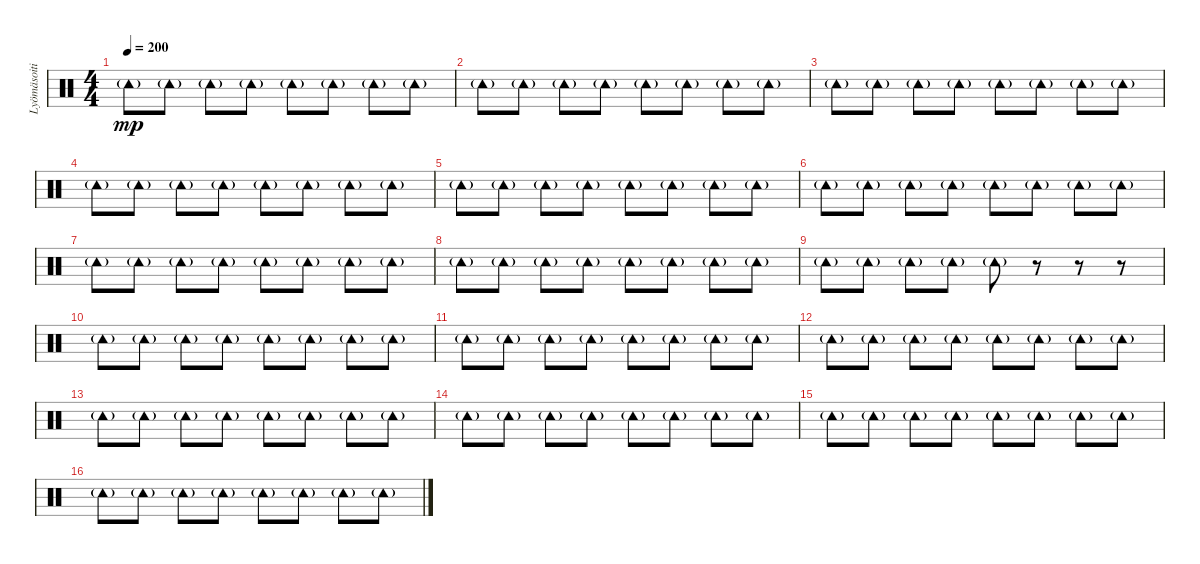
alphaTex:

\track ("Lyömäsoitin" "Lyömäsoiti") {instrument percussion}
\staff {score}
\articulation defaults
\ts (4 4)
\tempo 200
\clef neutral
\ks c "Tambourine (hit)"{g}.8{dy mp} "Tambourine (hit)"{g}.8 "Tambourine (hit)"{g}.8 "Tambourine (hit)"{g}.8 "Tambourine (hit)"{g}.8 "Tambourine (hit)"{g}.8 "Tambourine (hit)"{g}.8 "Tambourine (hit)"{g}.8
|
"Tambourine (hit)"{g}.8 "Tambourine (hit)"{g}.8 "Tambourine (hit)"{g}.8 "Tambourine (hit)"{g}.8 "Tambourine (hit)"{g}.8 "Tambourine (hit)"{g}.8 "Tambourine (hit)"{g}.8 "Tambourine (hit)"{g}.8 |
"Tambourine (hit)"{g}.8 "Tambourine (hit)"{g}.8 "Tambourine (hit)"{g}.8 "Tambourine (hit)"{g}.8 "Tambourine (hit)"{g}.8 "Tambourine (hit)"{g}.8 "Tambourine (hit)"{g}.8 "Tambourine (hit)"{g}.8 |
"Tambourine (hit)"{g}.8 "Tambourine (hit)"{g}.8 "Tambourine (hit)"{g}.8 "Tambourine (hit)"{g}.8 "Tambourine (hit)"{g}.8 "Tambourine (hit)"{g}.8 "Tambourine (hit)"{g}.8 "Tambourine (hit)"{g}.8 |
"Tambourine (hit)"{g}.8 "Tambourine (hit)"{g}.8 "Tambourine (hit)"{g}.8 "Tambourine (hit)"{g}.8 "Tambourine (hit)"{g}.8 "Tambourine (hit)"{g}.8 "Tambourine (hit)"{g}.8 "Tambourine (hit)"{g}.8 |
"Tambourine (hit)"{g}.8 "Tambourine (hit)"{g}.8 "Tambourine (hit)"{g}.8 "Tambourine (hit)"{g}.8 "Tambourine (hit)"{g}.8 "Tambourine (hit)"{g}.8 "Tambourine (hit)"{g}.8 "Tambourine (hit)"{g}.8 |
"Tambourine (hit)"{g}.8 "Tambourine (hit)"{g}.8 "Tambourine (hit)"{g}.8 "Tambourine (hit)"{g}.8 "Tambourine (hit)"{g}.8 "Tambourine (hit)"{g}.8 "Tambourine (hit)"{g}.8 "Tambourine (hit)"{g}.8 |
"Tambourine (hit)"{g}.8 "Tambourine (hit)"{g}.8 "Tambourine (hit)"{g}.8 "Tambourine (hit)"{g}.8 "Tambourine (hit)"{g}.8 "Tambourine (hit)"{g}.8 "Tambourine (hit)"{g}.8 "Tambourine (hit)"{g}.8 |
"Tambourine (hit)"{g}.8 "Tambourine (hit)"{g}.8 "Tambourine (hit)"{g}.8 "Tambourine (hit)"{g}.8 "Tambourine (hit)"{g}.8 r.8 r.8 r.8 |
"Tambourine (hit)"{g}.8 "Tambourine (hit)"{g}.8 "Tambourine (hit)"{g}.8 "Tambourine (hit)"{g}.8 "Tambourine (hit)"{g}.8 "Tambourine (hit)"{g}.8 "Tambourine (hit)"{g}.8 "Tambourine (hit)"{g}.8 |
"Tambourine (hit)"{g}.8 "Tambourine (hit)"{g}.8 "Tambourine (hit)"{g}.8 "Tambourine (hit)"{g}.8 "Tambourine (hit)"{g}.8 "Tambourine (hit)"{g}.8 "Tambourine (hit)"{g}.8 "Tambourine (hit)"{g}.8 |
"Tambourine (hit)"{g}.8 "Tambourine (hit)"{g}.8 "Tambourine (hit)"{g}.8 "Tambourine (hit)"{g}.8 "Tambourine (hit)"{g}.8 "Tambourine (hit)"{g}.8 "Tambourine (hit)"{g}.8 "Tambourine (hit)"{g}.8 |
"Tambourine (hit)"{g}.8 "Tambourine (hit)"{g}.8 "Tambourine (hit)"{g}.8 "Tambourine (hit)"{g}.8 "Tambourine (hit)"{g}.8 "Tambourine (hit)"{g}.8 "Tambourine (hit)"{g}.8 "Tambourine (hit)"{g}.8 |
"Tambourine (hit)"{g}.8 "Tambourine (hit)"{g}.8 "Tambourine (hit)"{g}.8 "Tambourine (hit)"{g}.8 "Tambourine (hit)"{g}.8 "Tambourine (hit)"{g}.8 "Tambourine (hit)"{g}.8 "Tambourine (hit)"{g}.8 |
"Tambourine (hit)"{g}.8 "Tambourine (hit)"{g}.8 "Tambourine (hit)"{g}.8 "Tambourine (hit)"{g}.8 "Tambourine (hit)"{g}.8 "Tambourine (hit)"{g}.8 "Tambourine (hit)"{g}.8 "Tambourine (hit)"{g}.8 |
"Tambourine (hit)"{g}.8 "Tambourine (hit)"{g}.8 "Tambourine (hit)"{g}.8 "Tambourine (hit)"{g}.8 "Tambourine (hit)"{g}.8 "Tambourine (hit)"{g}.8 "Tambourine (hit)"{g}.8 "Tambourine (hit)"{g}.8
